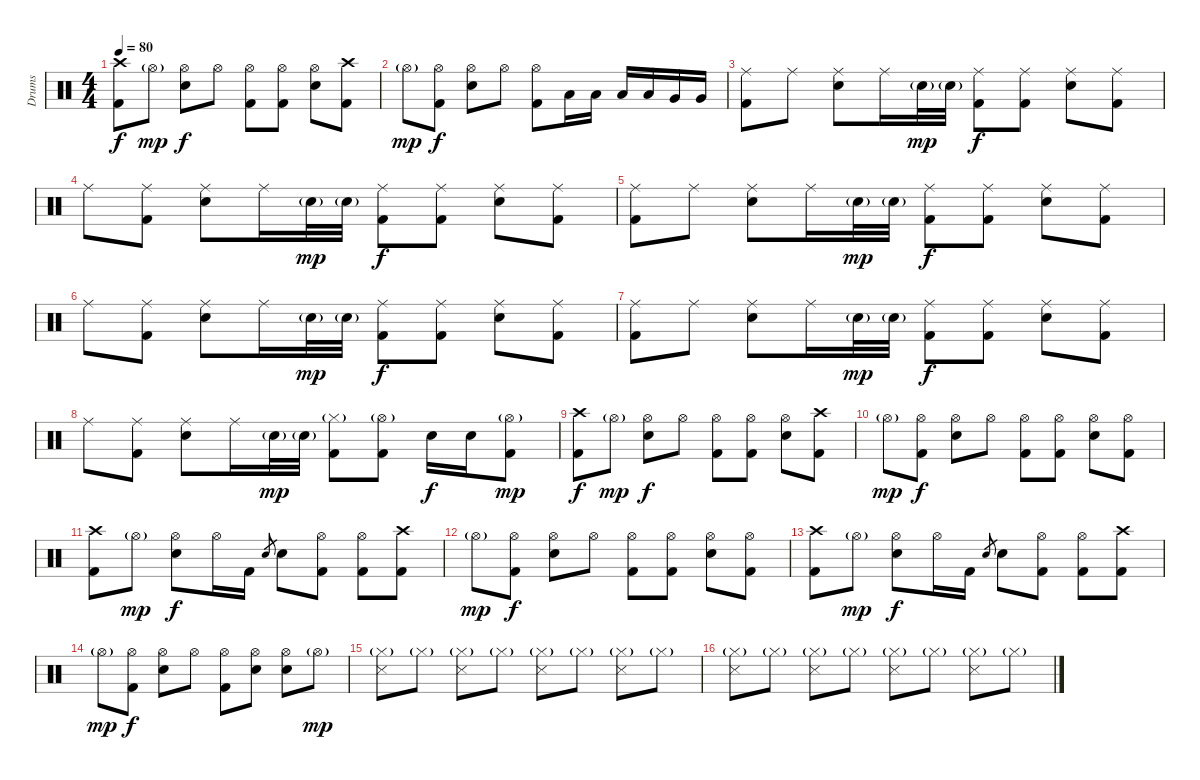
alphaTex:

\track ("Drums" "Drums") {instrument percussion}
\staff {score}
\articulation defaults
\ts (4 4)
\tempo 80
\clef neutral
\ks c
("Crash high (hit)" "Kick (hit) 2").8{dy f} "Hi-Hat (open)"{g}.8{dy mp} ("Hi-Hat (open)" "Snare (hit) 2").8{dy f} "Hi-Hat (open)".8 ("Hi-Hat (open)" "Kick (hit) 2").8 ("Hi-Hat (open)" "Kick (hit) 2").8 ("Hi-Hat (open)" "Snare (hit) 2").8 ("Crash high (hit)" "Kick (hit) 2").8 |
"Hi-Hat (open)"{g}.8{dy mp} ("Hi-Hat (open)" "Kick (hit) 2").8{dy f} ("Hi-Hat (open)" "Snare (hit) 2").8 "Hi-Hat (open)".8 ("Hi-Hat (open)" "Kick (hit) 2").8 "Low Floor Tom (hit)".16 "Low Floor Tom (hit)".16 "Low Tom (hit)".16 "Low Tom (hit)".16 "Very Low Tom (hit)".16 "Very Low Tom (hit)".16 |
("Ride (middle)" "Kick (hit) 2").8 "Ride (middle)".8 ("Ride (middle)" "Snare (hit) 2").8 "Ride (middle)".16 "Snare (hit) 2"{g}.32{dy mp} "Snare (hit) 2"{g}.32 ("Ride (middle)" "Kick (hit) 2").8{dy f} ("Ride (middle)" "Kick (hit) 2").8 ("Ride (middle)" "Snare (hit) 2").8 ("Ride (middle)" "Kick (hit) 2").8 |
"Ride (middle)".8 ("Ride (middle)" "Kick (hit) 2").8 ("Ride (middle)" "Snare (hit) 2").8 "Ride (middle)".16 "Snare (hit) 2"{g}.32{dy mp} "Snare (hit) 2"{g}.32 ("Ride (middle)" "Kick (hit) 2").8{dy f} ("Ride (middle)" "Kick (hit) 2").8 ("Ride (middle)" "Snare (hit) 2").8 ("Ride (middle)" "Kick (hit) 2").8 |
("Ride (middle)" "Kick (hit) 2").8 "Ride (middle)".8 ("Ride (middle)" "Snare (hit) 2").8 "Ride (middle)".16 "Snare (hit) 2"{g}.32{dy mp} "Snare (hit) 2"{g}.32 ("Ride (middle)" "Kick (hit) 2").8{dy f} ("Ride (middle)" "Kick (hit) 2").8 ("Ride (middle)" "Snare (hit) 2").8 ("Ride (middle)" "Kick (hit) 2").8 |
"Ride (middle)".8 ("Ride (middle)" "Kick (hit) 2").8 ("Ride (middle)" "Snare (hit) 2").8 "Ride (middle)".16 "Snare (hit) 2"{g}.32{dy mp} "Snare (hit) 2"{g}.32 ("Ride (middle)" "Kick (hit) 2").8{dy f} ("Ride (middle)" "Kick (hit) 2").8 ("Ride (middle)" "Snare (hit) 2").8 ("Ride (middle)" "Kick (hit) 2").8 |
("Ride (middle)" "Kick (hit) 2").8 "Ride (middle)".8 ("Ride (middle)" "Snare (hit) 2").8 "Ride (middle)".16 "Snare (hit) 2"{g}.32{dy mp} "Snare (hit) 2"{g}.32 ("Ride (middle)" "Kick (hit) 2").8{dy f} ("Ride (middle)" "Kick (hit) 2").8 ("Ride (middle)" "Snare (hit) 2").8 ("Ride (middle)" "Kick (hit) 2").8 |
"Ride (middle)".8 ("Ride (middle)" "Kick (hit) 2").8 ("Ride (middle)" "Snare (hit) 2").8 "Ride (middle)".16 "Snare (hit) 2"{g}.32{dy mp} "Snare (hit) 2"{g}.32 ("Hi-Hat (closed)"{g} "Kick (hit) 2").8 ("Hi-Hat (open)"{g} "Kick (hit) 2").8 "Snare (hit) 2".16{dy f} "Snare (hit) 2".16 ("Hi-Hat (open)"{g} "Kick (hit) 2").8{dy mp} |
("Crash high (hit)" "Kick (hit) 2").8{dy f} "Hi-Hat (open)"{g}.8{dy mp} ("Hi-Hat (open)" "Snare (hit) 2").8{dy f} "Hi-Hat (open)".8 ("Hi-Hat (open)" "Kick (hit) 2").8 ("Hi-Hat (open)" "Kick (hit) 2").8 ("Hi-Hat (open)" "Snare (hit) 2").8 ("Crash high (hit)" "Kick (hit) 2").8 |
"Hi-Hat (open)"{g}.8{dy mp} ("Hi-Hat (open)" "Kick (hit) 2").8{dy f} ("Hi-Hat (open)" "Snare (hit) 2").8 "Hi-Hat (open)".8 ("Hi-Hat (open)" "Kick (hit) 2").8 ("Hi-Hat (open)" "Kick (hit) 2").8 ("Hi-Hat (open)" "Snare (hit) 2").8 ("Hi-Hat (open)" "Kick (hit) 2").8 |
("Crash high (hit)" "Kick (hit) 2").8 "Hi-Hat (open)"{g}.8{dy mp} ("Hi-Hat (open)" "Snare (hit) 2").8{dy f} "Hi-Hat (open)".16 "Kick (hit) 2".16 "Snare (hit) 2".8{gr} "Snare (hit) 2".8 ("Hi-Hat (open)" "Kick (hit) 2").8 ("Hi-Hat (open)" "Kick (hit) 2").8 ("Crash high (hit)" "Kick (hit) 2").8 |
"Hi-Hat (open)"{g}.8{dy mp} ("Hi-Hat (open)" "Kick (hit) 2").8{dy f} ("Hi-Hat (open)" "Snare (hit) 2").8 "Hi-Hat (open)".8 ("Hi-Hat (open)" "Kick (hit) 2").8 ("Hi-Hat (open)" "Kick (hit) 2").8 ("Hi-Hat (open)" "Snare (hit) 2").8 ("Hi-Hat (open)" "Kick (hit) 2").8 |
("Crash high (hit)" "Kick (hit) 2").8 "Hi-Hat (open)"{g}.8{dy mp} ("Hi-Hat (open)" "Snare (hit) 2").8{dy f} "Hi-Hat (open)".16 "Kick (hit) 2".16 "Snare (hit) 2".8{gr} "Snare (hit) 2".8 ("Hi-Hat (open)" "Kick (hit) 2").8 ("Hi-Hat (open)" "Kick (hit) 2").8 ("Crash high (hit)" "Kick (hit) 2").8 |
"Hi-Hat (open)"{g}.8{dy mp} ("Hi-Hat (open)" "Kick (hit) 2").8{dy f} ("Hi-Hat (open)" "Snare (hit) 2").8 "Hi-Hat (open)".8 ("Hi-Hat (open)" "Kick (hit) 2").8 ("Hi-Hat (open)" "Snare (hit) 2").8 ("Hi-Hat (open)" "Snare (hit) 2").8 "Hi-Hat (open)"{g}.8{dy mp} |
("Hi-Hat (closed)"{g} "Snare (side stick) 3").8 "Hi-Hat (closed)"{g}.8 ("Hi-Hat (closed)"{g} "Snare (side stick) 3").8 "Hi-Hat (closed)"{g}.8 ("Hi-Hat (closed)"{g} "Snare (side stick) 3").8 "Hi-Hat (closed)"{g}.8 ("Hi-Hat (closed)"{g} "Snare (side stick) 3").8 "Hi-Hat (closed)"{g}.8 |
("Hi-Hat (closed)"{g} "Snare (side stick) 3").8 "Hi-Hat (closed)"{g}.8 ("Hi-Hat (closed)"{g} "Snare (side stick) 3").8 "Hi-Hat (closed)"{g}.8 ("Hi-Hat (closed)"{g} "Snare (side stick) 3").8 "Hi-Hat (closed)"{g}.8 ("Hi-Hat (closed)"{g} "Snare (side stick) 3").8 "Hi-Hat (closed)"{g}.8
